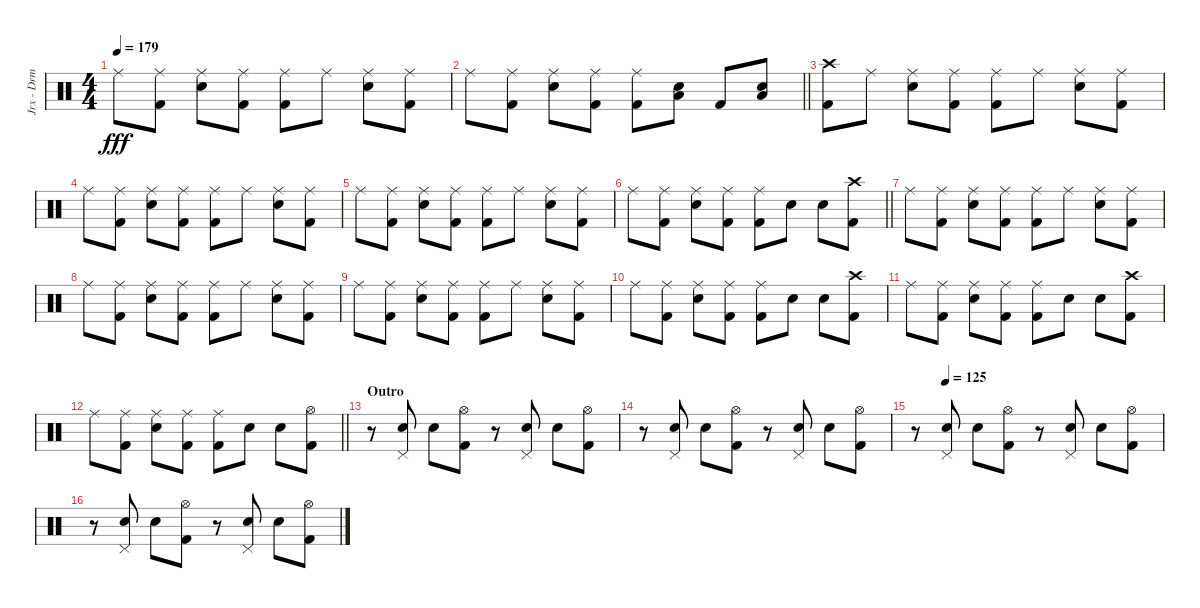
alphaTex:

\track ("Jrx - Drm" "Jrx - Drm") {instrument percussion}
\staff {score}
\articulation defaults
\ts (4 4)
\tempo 179
\clef neutral
\ks c "Ride (middle)".8{dy fff}
("Kick (hit) 2" "Ride (middle)").8 ("Snare (hit) 2" "Ride (middle)").8 ("Kick (hit) 2" "Ride (middle)").8 ("Kick (hit) 2" "Ride (middle)").8 "Ride (middle)".8 ("Snare (hit) 2" "Ride (middle)").8 ("Kick (hit) 2" "Ride (middle)").8 |
\barLineRight lightlight "Ride (middle)".8
("Kick (hit) 2" "Ride (middle)").8 ("Snare (hit) 2" "Ride (middle)").8 ("Kick (hit) 2" "Ride (middle)").8 ("Kick (hit) 2" "Ride (middle)").8 ("Snare (hit) 2" "Low Floor Tom (hit)").8 "Kick (hit) 2".8 ("Snare (hit) 2" "Low Floor Tom (hit)").8 |
("Kick (hit) 2" "Crash high (hit)").8 "Ride (middle)".8 ("Snare (hit) 2" "Ride (middle)").8 ("Kick (hit) 2" "Ride (middle)").8 ("Kick (hit) 2" "Ride (middle)").8 "Ride (middle)".8 ("Snare (hit) 2" "Ride (middle)").8 ("Kick (hit) 2" "Ride (middle)").8 |
"Ride (middle)".8 ("Kick (hit) 2" "Ride (middle)").8 ("Snare (hit) 2" "Ride (middle)").8 ("Kick (hit) 2" "Ride (middle)").8 ("Kick (hit) 2" "Ride (middle)").8 "Ride (middle)".8 ("Snare (hit) 2" "Ride (middle)").8 ("Kick (hit) 2" "Ride (middle)").8 |
"Ride (middle)".8 ("Kick (hit) 2" "Ride (middle)").8 ("Snare (hit) 2" "Ride (middle)").8 ("Kick (hit) 2" "Ride (middle)").8 ("Kick (hit) 2" "Ride (middle)").8 "Ride (middle)".8 ("Snare (hit) 2" "Ride (middle)").8 ("Kick (hit) 2" "Ride (middle)").8 |
\barLineRight lightlight "Ride (middle)".8
("Kick (hit) 2" "Ride (middle)").8 ("Snare (hit) 2" "Ride (middle)").8 ("Kick (hit) 2" "Ride (middle)").8 ("Kick (hit) 2" "Ride (middle)").8 "Snare (hit) 2".8 "Snare (hit) 2".8 ("Kick (hit) 2" "Crash high (hit)").8 |
"Ride (middle)".8 ("Kick (hit) 2" "Ride (middle)").8 ("Snare (hit) 2" "Ride (middle)").8 ("Kick (hit) 2" "Ride (middle)").8 ("Kick (hit) 2" "Ride (middle)").8 "Ride (middle)".8 ("Snare (hit) 2" "Ride (middle)").8 ("Kick (hit) 2" "Ride (middle)").8 |
"Ride (middle)".8 ("Kick (hit) 2" "Ride (middle)").8 ("Snare (hit) 2" "Ride (middle)").8 ("Kick (hit) 2" "Ride (middle)").8 ("Kick (hit) 2" "Ride (middle)").8 "Ride (middle)".8 ("Snare (hit) 2" "Ride (middle)").8 ("Kick (hit) 2" "Ride (middle)").8 |
"Ride (middle)".8 ("Kick (hit) 2" "Ride (middle)").8 ("Snare (hit) 2" "Ride (middle)").8 ("Kick (hit) 2" "Ride (middle)").8 ("Kick (hit) 2" "Ride (middle)").8 "Ride (middle)".8 ("Snare (hit) 2" "Ride (middle)").8 ("Kick (hit) 2" "Ride (middle)").8 |
"Ride (middle)".8 ("Kick (hit) 2" "Ride (middle)").8 ("Snare (hit) 2" "Ride (middle)").8 ("Kick (hit) 2" "Ride (middle)").8 ("Kick (hit) 2" "Ride (middle)").8 "Snare (hit) 2".8 "Snare (hit) 2".8 ("Kick (hit) 2" "Crash high (hit)").8 |
"Ride (middle)".8 ("Kick (hit) 2" "Ride (middle)").8 ("Snare (hit) 2" "Ride (middle)").8 ("Kick (hit) 2" "Ride (middle)").8 ("Kick (hit) 2" "Ride (middle)").8 "Snare (hit) 2".8 "Snare (hit) 2".8 ("Kick (hit) 2" "Crash high (hit)").8 |
\barLineRight lightlight "Ride (middle)".8
("Kick (hit) 2" "Ride (middle)").8 ("Snare (hit) 2" "Ride (middle)").8 ("Kick (hit) 2" "Ride (middle)").8 ("Kick (hit) 2" "Ride (middle)").8 "Snare (hit) 2".8 "Snare (hit) 2".8 ("Hi-Hat (open)" "Kick (hit) 2").8 |
\section ("" "Outro")
r.8 ("Pedal Hi-Hat (hit)" "Snare (hit) 2").8 "Snare (hit) 2".8 ("Hi-Hat (open)" "Kick (hit) 2").8 r.8 ("Pedal Hi-Hat (hit)" "Snare (hit) 2").8 "Snare (hit) 2".8 ("Hi-Hat (open)" "Kick (hit) 2").8 |
r.8 ("Pedal Hi-Hat (hit)" "Snare (hit) 2").8 "Snare (hit) 2".8 ("Hi-Hat (open)" "Kick (hit) 2").8 r.8 ("Pedal Hi-Hat (hit)" "Snare (hit) 2").8 "Snare (hit) 2".8 ("Hi-Hat (open)" "Kick (hit) 2").8 |
\tempo (125 0.125)
r.8 ("Pedal Hi-Hat (hit)" "Snare (hit) 2").8 "Snare (hit) 2".8 ("Hi-Hat (open)" "Kick (hit) 2").8 r.8 ("Pedal Hi-Hat (hit)" "Snare (hit) 2").8 "Snare (hit) 2".8 ("Hi-Hat (open)" "Kick (hit) 2").8 |
r.8 ("Pedal Hi-Hat (hit)" "Snare (hit) 2").8 "Snare (hit) 2".8 ("Hi-Hat (open)" "Kick (hit) 2").8 r.8 ("Pedal Hi-Hat (hit)" "Snare (hit) 2").8 "Snare (hit) 2".8 ("Hi-Hat (open)" "Kick (hit) 2").8
